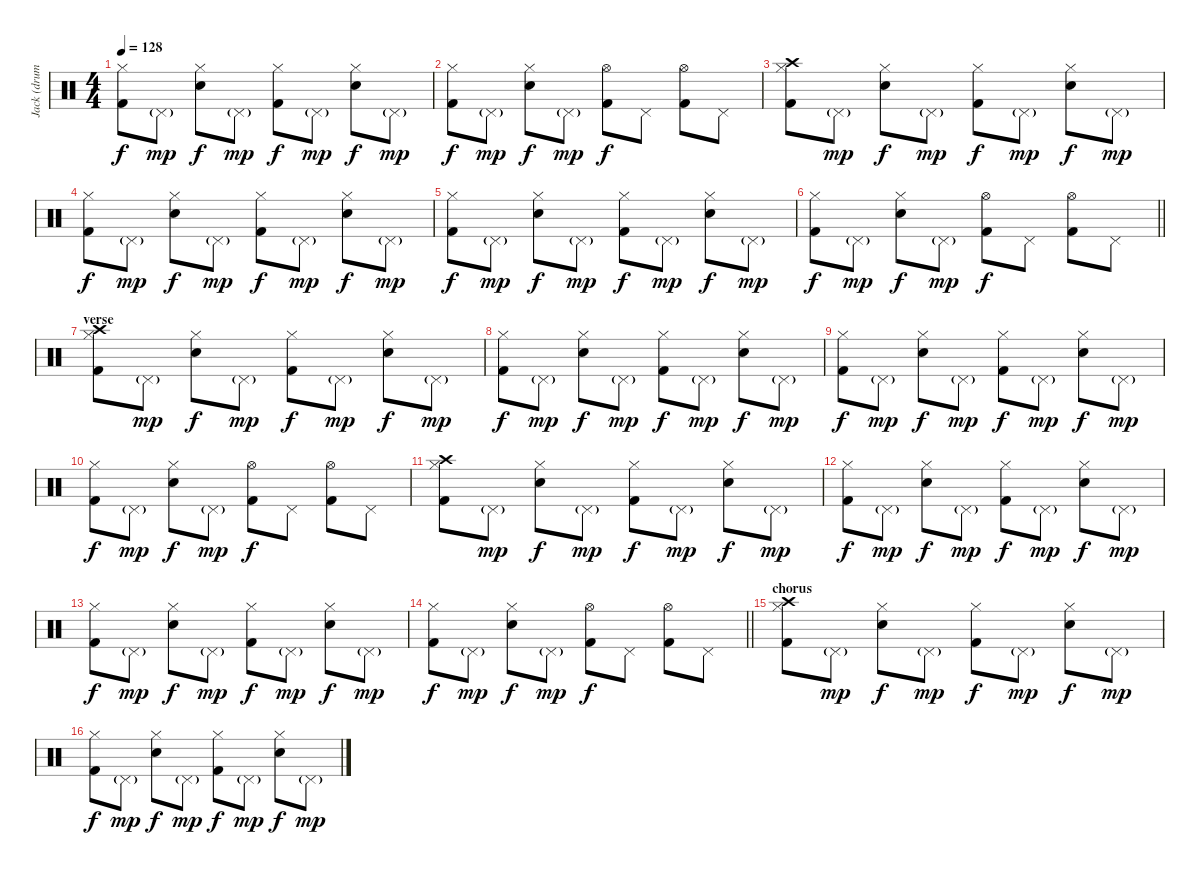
\track ("Jack (drums)" "Jack (drum") {instrument percussion}
\staff {score}
\articulation defaults
\ts (4 4)
\tempo 128
\clef neutral
\ks c
("Hi-Hat (closed)" "Kick (hit) 2").8{dy f} "Pedal Hi-Hat (hit)"{g}.8{dy mp} ("Hi-Hat (closed)" "Snare (hit) 2").8{dy f} "Pedal Hi-Hat (hit)"{g}.8{dy mp} ("Hi-Hat (closed)" "Kick (hit) 2").8{dy f} "Pedal Hi-Hat (hit)"{g}.8{dy mp} ("Hi-Hat (closed)" "Snare (hit) 2").8{dy f} "Pedal Hi-Hat (hit)"{g}.8{dy mp} |
("Hi-Hat (closed)" "Kick (hit) 2").8{dy f} "Pedal Hi-Hat (hit)"{g}.8{dy mp} ("Hi-Hat (closed)" "Snare (hit) 2").8{dy f} "Pedal Hi-Hat (hit)"{g}.8{dy mp} ("Hi-Hat (open)" "Kick (hit) 2").8{dy f} "Pedal Hi-Hat (hit)".8 ("Hi-Hat (open)" "Kick (hit) 2").8 "Pedal Hi-Hat (hit)".8 |
("Hi-Hat (closed)" "Crash high (hit)" "Kick (hit) 2").8 "Pedal Hi-Hat (hit)"{g}.8{dy mp} ("Hi-Hat (closed)" "Snare (hit) 2").8{dy f} "Pedal Hi-Hat (hit)"{g}.8{dy mp} ("Hi-Hat (closed)" "Kick (hit) 2").8{dy f} "Pedal Hi-Hat (hit)"{g}.8{dy mp} ("Hi-Hat (closed)" "Snare (hit) 2").8{dy f} "Pedal Hi-Hat (hit)"{g}.8{dy mp} |
("Hi-Hat (closed)" "Kick (hit) 2").8{dy f} "Pedal Hi-Hat (hit)"{g}.8{dy mp} ("Hi-Hat (closed)" "Snare (hit) 2").8{dy f} "Pedal Hi-Hat (hit)"{g}.8{dy mp} ("Hi-Hat (closed)" "Kick (hit) 2").8{dy f} "Pedal Hi-Hat (hit)"{g}.8{dy mp} ("Hi-Hat (closed)" "Snare (hit) 2").8{dy f} "Pedal Hi-Hat (hit)"{g}.8{dy mp} |
("Hi-Hat (closed)" "Kick (hit) 2").8{dy f} "Pedal Hi-Hat (hit)"{g}.8{dy mp} ("Hi-Hat (closed)" "Snare (hit) 2").8{dy f} "Pedal Hi-Hat (hit)"{g}.8{dy mp} ("Hi-Hat (closed)" "Kick (hit) 2").8{dy f} "Pedal Hi-Hat (hit)"{g}.8{dy mp} ("Hi-Hat (closed)" "Snare (hit) 2").8{dy f} "Pedal Hi-Hat (hit)"{g}.8{dy mp} |
\barLineRight lightlight
("Hi-Hat (closed)" "Kick (hit) 2").8{dy f} "Pedal Hi-Hat (hit)"{g}.8{dy mp} ("Hi-Hat (closed)" "Snare (hit) 2").8{dy f} "Pedal Hi-Hat (hit)"{g}.8{dy mp} ("Hi-Hat (open)" "Kick (hit) 2").8{dy f} "Pedal Hi-Hat (hit)".8 ("Hi-Hat (open)" "Kick (hit) 2").8 "Pedal Hi-Hat (hit)".8 |
\section ("" "verse")
("Hi-Hat (closed)" "Crash high (hit)" "Kick (hit) 2").8 "Pedal Hi-Hat (hit)"{g}.8{dy mp} ("Hi-Hat (closed)" "Snare (hit) 2").8{dy f} "Pedal Hi-Hat (hit)"{g}.8{dy mp} ("Hi-Hat (closed)" "Kick (hit) 2").8{dy f} "Pedal Hi-Hat (hit)"{g}.8{dy mp} ("Hi-Hat (closed)" "Snare (hit) 2").8{dy f} "Pedal Hi-Hat (hit)"{g}.8{dy mp} |
("Hi-Hat (closed)" "Kick (hit) 2").8{dy f} "Pedal Hi-Hat (hit)"{g}.8{dy mp} ("Hi-Hat (closed)" "Snare (hit) 2").8{dy f} "Pedal Hi-Hat (hit)"{g}.8{dy mp} ("Hi-Hat (closed)" "Kick (hit) 2").8{dy f} "Pedal Hi-Hat (hit)"{g}.8{dy mp} ("Hi-Hat (closed)" "Snare (hit) 2").8{dy f} "Pedal Hi-Hat (hit)"{g}.8{dy mp} |
("Hi-Hat (closed)" "Kick (hit) 2").8{dy f} "Pedal Hi-Hat (hit)"{g}.8{dy mp} ("Hi-Hat (closed)" "Snare (hit) 2").8{dy f} "Pedal Hi-Hat (hit)"{g}.8{dy mp} ("Hi-Hat (closed)" "Kick (hit) 2").8{dy f} "Pedal Hi-Hat (hit)"{g}.8{dy mp} ("Hi-Hat (closed)" "Snare (hit) 2").8{dy f} "Pedal Hi-Hat (hit)"{g}.8{dy mp} |
("Hi-Hat (closed)" "Kick (hit) 2").8{dy f} "Pedal Hi-Hat (hit)"{g}.8{dy mp} ("Hi-Hat (closed)" "Snare (hit) 2").8{dy f} "Pedal Hi-Hat (hit)"{g}.8{dy mp} ("Hi-Hat (open)" "Kick (hit) 2").8{dy f} "Pedal Hi-Hat (hit)".8 ("Hi-Hat (open)" "Kick (hit) 2").8 "Pedal Hi-Hat (hit)".8 |
("Hi-Hat (closed)" "Crash high (hit)" "Kick (hit) 2").8 "Pedal Hi-Hat (hit)"{g}.8{dy mp} ("Hi-Hat (closed)" "Snare (hit) 2").8{dy f} "Pedal Hi-Hat (hit)"{g}.8{dy mp} ("Hi-Hat (closed)" "Kick (hit) 2").8{dy f} "Pedal Hi-Hat (hit)"{g}.8{dy mp} ("Hi-Hat (closed)" "Snare (hit) 2").8{dy f} "Pedal Hi-Hat (hit)"{g}.8{dy mp} |
("Hi-Hat (closed)" "Kick (hit) 2").8{dy f} "Pedal Hi-Hat (hit)"{g}.8{dy mp} ("Hi-Hat (closed)" "Snare (hit) 2").8{dy f} "Pedal Hi-Hat (hit)"{g}.8{dy mp} ("Hi-Hat (closed)" "Kick (hit) 2").8{dy f} "Pedal Hi-Hat (hit)"{g}.8{dy mp} ("Hi-Hat (closed)" "Snare (hit) 2").8{dy f} "Pedal Hi-Hat (hit)"{g}.8{dy mp} |
("Hi-Hat (closed)" "Kick (hit) 2").8{dy f} "Pedal Hi-Hat (hit)"{g}.8{dy mp} ("Hi-Hat (closed)" "Snare (hit) 2").8{dy f} "Pedal Hi-Hat (hit)"{g}.8{dy mp} ("Hi-Hat (closed)" "Kick (hit) 2").8{dy f} "Pedal Hi-Hat (hit)"{g}.8{dy mp} ("Hi-Hat (closed)" "Snare (hit) 2").8{dy f} "Pedal Hi-Hat (hit)"{g}.8{dy mp} |
\barLineRight lightlight
("Hi-Hat (closed)" "Kick (hit) 2").8{dy f} "Pedal Hi-Hat (hit)"{g}.8{dy mp} ("Hi-Hat (closed)" "Snare (hit) 2").8{dy f} "Pedal Hi-Hat (hit)"{g}.8{dy mp} ("Hi-Hat (open)" "Kick (hit) 2").8{dy f} "Pedal Hi-Hat (hit)".8 ("Hi-Hat (open)" "Kick (hit) 2").8 "Pedal Hi-Hat (hit)".8 |
\section ("" "chorus")
("Hi-Hat (closed)" "Crash high (hit)" "Kick (hit) 2").8 "Pedal Hi-Hat (hit)"{g}.8{dy mp} ("Hi-Hat (closed)" "Snare (hit) 2").8{dy f} "Pedal Hi-Hat (hit)"{g}.8{dy mp} ("Hi-Hat (closed)" "Kick (hit) 2").8{dy f} "Pedal Hi-Hat (hit)"{g}.8{dy mp} ("Hi-Hat (closed)" "Snare (hit) 2").8{dy f} "Pedal Hi-Hat (hit)"{g}.8{dy mp} |
("Hi-Hat (closed)" "Kick (hit) 2").8{dy f} "Pedal Hi-Hat (hit)"{g}.8{dy mp} ("Hi-Hat (closed)" "Snare (hit) 2").8{dy f} "Pedal Hi-Hat (hit)"{g}.8{dy mp} ("Hi-Hat (closed)" "Kick (hit) 2").8{dy f} "Pedal Hi-Hat (hit)"{g}.8{dy mp} ("Hi-Hat (closed)" "Snare (hit) 2").8{dy f} "Pedal Hi-Hat (hit)"{g}.8{dy mp}
